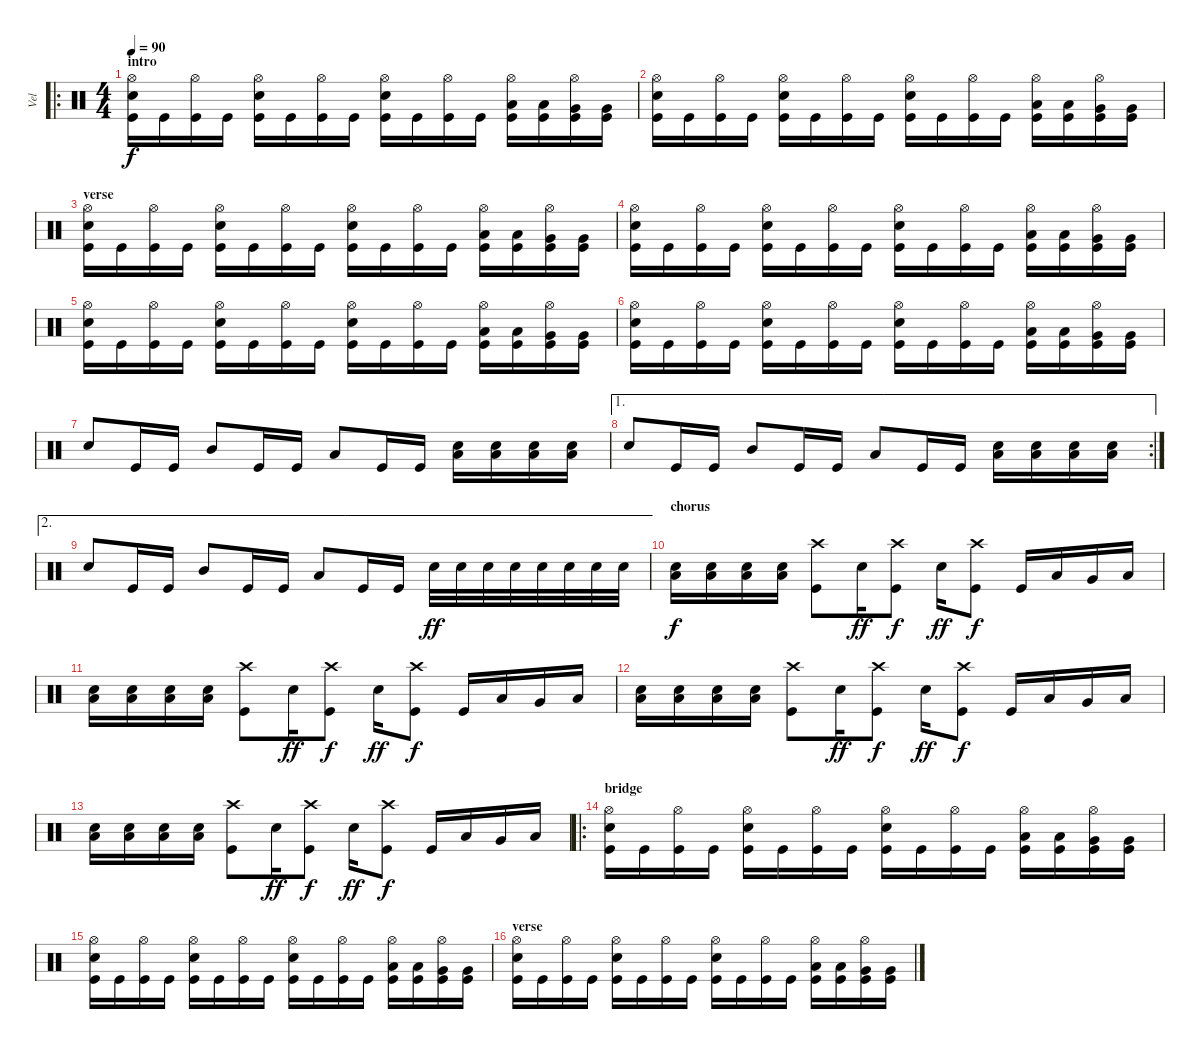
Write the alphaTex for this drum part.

\track ("Vel" "Vel") {instrument percussion}
\staff {score}
\articulation defaults
\ro
\ts (4 4)
\section ("" "intro")
\tempo 90
\clef neutral
\ks c
("Hi-Hat (open)" "Electric Snare (hit)" "Kick (hit)").16{dy f} "Kick (hit)".16 ("Hi-Hat (open)" "Kick (hit)").16 "Kick (hit)".16 ("Hi-Hat (open)" "Electric Snare (hit)" "Kick (hit)").16 "Kick (hit)".16 ("Hi-Hat (open)" "Kick (hit)").16 "Kick (hit)".16 ("Hi-Hat (open)" "Electric Snare (hit)" "Kick (hit)").16 "Kick (hit)".16 ("Hi-Hat (open)" "Kick (hit)").16 "Kick (hit)".16 ("Hi-Hat (open)" "Low Tom (hit)" "Kick (hit)").16 ("Low Tom (hit)" "Kick (hit)").16 ("Hi-Hat (open)" "Very Low Tom (hit)" "Kick (hit)").16 ("Very Low Tom (hit)" "Kick (hit)").16 |
("Hi-Hat (open)" "Electric Snare (hit)" "Kick (hit)").16 "Kick (hit)".16 ("Hi-Hat (open)" "Kick (hit)").16 "Kick (hit)".16 ("Hi-Hat (open)" "Electric Snare (hit)" "Kick (hit)").16 "Kick (hit)".16 ("Hi-Hat (open)" "Kick (hit)").16 "Kick (hit)".16 ("Hi-Hat (open)" "Electric Snare (hit)" "Kick (hit)").16 "Kick (hit)".16 ("Hi-Hat (open)" "Kick (hit)").16 "Kick (hit)".16 ("Hi-Hat (open)" "Low Tom (hit)" "Kick (hit)").16 ("Low Tom (hit)" "Kick (hit)").16 ("Hi-Hat (open)" "Very Low Tom (hit)" "Kick (hit)").16 ("Very Low Tom (hit)" "Kick (hit)").16 |
\section ("" "verse")
("Hi-Hat (open)" "Electric Snare (hit)" "Kick (hit)").16 "Kick (hit)".16 ("Hi-Hat (open)" "Kick (hit)").16 "Kick (hit)".16 ("Hi-Hat (open)" "Electric Snare (hit)" "Kick (hit)").16 "Kick (hit)".16 ("Hi-Hat (open)" "Kick (hit)").16 "Kick (hit)".16 ("Hi-Hat (open)" "Electric Snare (hit)" "Kick (hit)").16 "Kick (hit)".16 ("Hi-Hat (open)" "Kick (hit)").16 "Kick (hit)".16 ("Hi-Hat (open)" "Low Tom (hit)" "Kick (hit)").16 ("Low Tom (hit)" "Kick (hit)").16 ("Hi-Hat (open)" "Very Low Tom (hit)" "Kick (hit)").16 ("Very Low Tom (hit)" "Kick (hit)").16 |
("Hi-Hat (open)" "Electric Snare (hit)" "Kick (hit)").16 "Kick (hit)".16 ("Hi-Hat (open)" "Kick (hit)").16 "Kick (hit)".16 ("Hi-Hat (open)" "Electric Snare (hit)" "Kick (hit)").16 "Kick (hit)".16 ("Hi-Hat (open)" "Kick (hit)").16 "Kick (hit)".16 ("Hi-Hat (open)" "Electric Snare (hit)" "Kick (hit)").16 "Kick (hit)".16 ("Hi-Hat (open)" "Kick (hit)").16 "Kick (hit)".16 ("Hi-Hat (open)" "Low Tom (hit)" "Kick (hit)").16 ("Low Tom (hit)" "Kick (hit)").16 ("Hi-Hat (open)" "Very Low Tom (hit)" "Kick (hit)").16 ("Very Low Tom (hit)" "Kick (hit)").16 |
("Hi-Hat (open)" "Electric Snare (hit)" "Kick (hit)").16 "Kick (hit)".16 ("Hi-Hat (open)" "Kick (hit)").16 "Kick (hit)".16 ("Hi-Hat (open)" "Electric Snare (hit)" "Kick (hit)").16 "Kick (hit)".16 ("Hi-Hat (open)" "Kick (hit)").16 "Kick (hit)".16 ("Hi-Hat (open)" "Electric Snare (hit)" "Kick (hit)").16 "Kick (hit)".16 ("Hi-Hat (open)" "Kick (hit)").16 "Kick (hit)".16 ("Hi-Hat (open)" "Low Tom (hit)" "Kick (hit)").16 ("Low Tom (hit)" "Kick (hit)").16 ("Hi-Hat (open)" "Very Low Tom (hit)" "Kick (hit)").16 ("Very Low Tom (hit)" "Kick (hit)").16 |
("Hi-Hat (open)" "Electric Snare (hit)" "Kick (hit)").16 "Kick (hit)".16 ("Hi-Hat (open)" "Kick (hit)").16 "Kick (hit)".16 ("Hi-Hat (open)" "Electric Snare (hit)" "Kick (hit)").16 "Kick (hit)".16 ("Hi-Hat (open)" "Kick (hit)").16 "Kick (hit)".16 ("Hi-Hat (open)" "Electric Snare (hit)" "Kick (hit)").16 "Kick (hit)".16 ("Hi-Hat (open)" "Kick (hit)").16 "Kick (hit)".16 ("Hi-Hat (open)" "Low Tom (hit)" "Kick (hit)").16 ("Low Tom (hit)" "Kick (hit)").16 ("Hi-Hat (open)" "Very Low Tom (hit)" "Kick (hit)").16 ("Very Low Tom (hit)" "Kick (hit)").16 |
"Electric Snare (hit)".8 "Kick (hit)".16 "Kick (hit)".16 "Mid Tom (hit)".8 "Kick (hit)".16 "Kick (hit)".16 "Low Tom (hit)".8 "Kick (hit)".16 "Kick (hit)".16 ("Low Floor Tom (hit)" "Electric Snare (hit)").16 ("Low Floor Tom (hit)" "Electric Snare (hit)").16 ("Low Floor Tom (hit)" "Electric Snare (hit)").16 ("Low Floor Tom (hit)" "Electric Snare (hit)").16 |
\ae 1
\rc 2 "Electric Snare (hit)".8 "Kick (hit)".16 "Kick (hit)".16 "Mid Tom (hit)".8 "Kick (hit)".16 "Kick (hit)".16 "Low Tom (hit)".8 "Kick (hit)".16 "Kick (hit)".16
("Low Floor Tom (hit)" "Electric Snare (hit)").16 ("Low Floor Tom (hit)" "Electric Snare (hit)").16 ("Low Floor Tom (hit)" "Electric Snare (hit)").16 ("Low Floor Tom (hit)" "Electric Snare (hit)").16 |
\ae 2 "Electric Snare (hit)".8 "Kick (hit)".16 "Kick (hit)".16 "Mid Tom (hit)".8 "Kick (hit)".16 "Kick (hit)".16 "Low Tom (hit)".8 "Kick (hit)".16 "Kick (hit)".16 "Electric Snare (hit)".32{dy ff} "Electric Snare (hit)".32 "Electric Snare (hit)".32 "Electric Snare (hit)".32 "Electric Snare (hit)".32 "Electric Snare (hit)".32 "Electric Snare (hit)".32 "Electric Snare (hit)".32
|
\section ("" "chorus")
("Low Floor Tom (hit)" "Electric Snare (hit)").16{dy f} ("Low Floor Tom (hit)" "Electric Snare (hit)").16 ("Low Floor Tom (hit)" "Electric Snare (hit)").16 ("Low Floor Tom (hit)" "Electric Snare (hit)").16 ("Crash high (hit)" "Kick (hit)").8 "Electric Snare (hit)".16{dy ff} ("Crash high (hit)" "Kick (hit)").8{dy f} "Electric Snare (hit)".16{dy ff} ("Crash high (hit)" "Kick (hit)").8{dy f} "Kick (hit)".16 "Low Tom (hit)".16 "Very Low Tom (hit)".16 "Low Floor Tom (hit)".16 |
("Low Floor Tom (hit)" "Electric Snare (hit)").16 ("Low Floor Tom (hit)" "Electric Snare (hit)").16 ("Low Floor Tom (hit)" "Electric Snare (hit)").16 ("Low Floor Tom (hit)" "Electric Snare (hit)").16 ("Crash high (hit)" "Kick (hit)").8 "Electric Snare (hit)".16{dy ff} ("Crash high (hit)" "Kick (hit)").8{dy f} "Electric Snare (hit)".16{dy ff} ("Crash high (hit)" "Kick (hit)").8{dy f} "Kick (hit)".16 "Low Tom (hit)".16 "Very Low Tom (hit)".16 "Low Floor Tom (hit)".16 |
("Low Floor Tom (hit)" "Electric Snare (hit)").16 ("Low Floor Tom (hit)" "Electric Snare (hit)").16 ("Low Floor Tom (hit)" "Electric Snare (hit)").16 ("Low Floor Tom (hit)" "Electric Snare (hit)").16 ("Crash high (hit)" "Kick (hit)").8 "Electric Snare (hit)".16{dy ff} ("Crash high (hit)" "Kick (hit)").8{dy f} "Electric Snare (hit)".16{dy ff} ("Crash high (hit)" "Kick (hit)").8{dy f} "Kick (hit)".16 "Low Tom (hit)".16 "Very Low Tom (hit)".16 "Low Floor Tom (hit)".16 |
("Low Floor Tom (hit)" "Electric Snare (hit)").16 ("Low Floor Tom (hit)" "Electric Snare (hit)").16 ("Low Floor Tom (hit)" "Electric Snare (hit)").16 ("Low Floor Tom (hit)" "Electric Snare (hit)").16 ("Crash high (hit)" "Kick (hit)").8 "Electric Snare (hit)".16{dy ff} ("Crash high (hit)" "Kick (hit)").8{dy f} "Electric Snare (hit)".16{dy ff} ("Crash high (hit)" "Kick (hit)").8{dy f} "Kick (hit)".16 "Low Tom (hit)".16 "Very Low Tom (hit)".16 "Low Floor Tom (hit)".16 |
\ro
\section ("" "bridge")
("Hi-Hat (open)" "Electric Snare (hit)" "Kick (hit)").16 "Kick (hit)".16 ("Hi-Hat (open)" "Kick (hit)").16 "Kick (hit)".16 ("Hi-Hat (open)" "Electric Snare (hit)" "Kick (hit)").16 "Kick (hit)".16 ("Hi-Hat (open)" "Kick (hit)").16 "Kick (hit)".16 ("Hi-Hat (open)" "Electric Snare (hit)" "Kick (hit)").16 "Kick (hit)".16 ("Hi-Hat (open)" "Kick (hit)").16 "Kick (hit)".16 ("Hi-Hat (open)" "Low Tom (hit)" "Kick (hit)").16 ("Low Tom (hit)" "Kick (hit)").16 ("Hi-Hat (open)" "Very Low Tom (hit)" "Kick (hit)").16 ("Very Low Tom (hit)" "Kick (hit)").16 |
("Hi-Hat (open)" "Electric Snare (hit)" "Kick (hit)").16 "Kick (hit)".16 ("Hi-Hat (open)" "Kick (hit)").16 "Kick (hit)".16 ("Hi-Hat (open)" "Electric Snare (hit)" "Kick (hit)").16 "Kick (hit)".16 ("Hi-Hat (open)" "Kick (hit)").16 "Kick (hit)".16 ("Hi-Hat (open)" "Electric Snare (hit)" "Kick (hit)").16 "Kick (hit)".16 ("Hi-Hat (open)" "Kick (hit)").16 "Kick (hit)".16 ("Hi-Hat (open)" "Low Tom (hit)" "Kick (hit)").16 ("Low Tom (hit)" "Kick (hit)").16 ("Hi-Hat (open)" "Very Low Tom (hit)" "Kick (hit)").16 ("Very Low Tom (hit)" "Kick (hit)").16 |
\section ("" "verse")
("Hi-Hat (open)" "Electric Snare (hit)" "Kick (hit)").16 "Kick (hit)".16 ("Hi-Hat (open)" "Kick (hit)").16 "Kick (hit)".16 ("Hi-Hat (open)" "Electric Snare (hit)" "Kick (hit)").16 "Kick (hit)".16 ("Hi-Hat (open)" "Kick (hit)").16 "Kick (hit)".16 ("Hi-Hat (open)" "Electric Snare (hit)" "Kick (hit)").16 "Kick (hit)".16 ("Hi-Hat (open)" "Kick (hit)").16 "Kick (hit)".16 ("Hi-Hat (open)" "Low Tom (hit)" "Kick (hit)").16 ("Low Tom (hit)" "Kick (hit)").16 ("Hi-Hat (open)" "Very Low Tom (hit)" "Kick (hit)").16 ("Very Low Tom (hit)" "Kick (hit)").16
